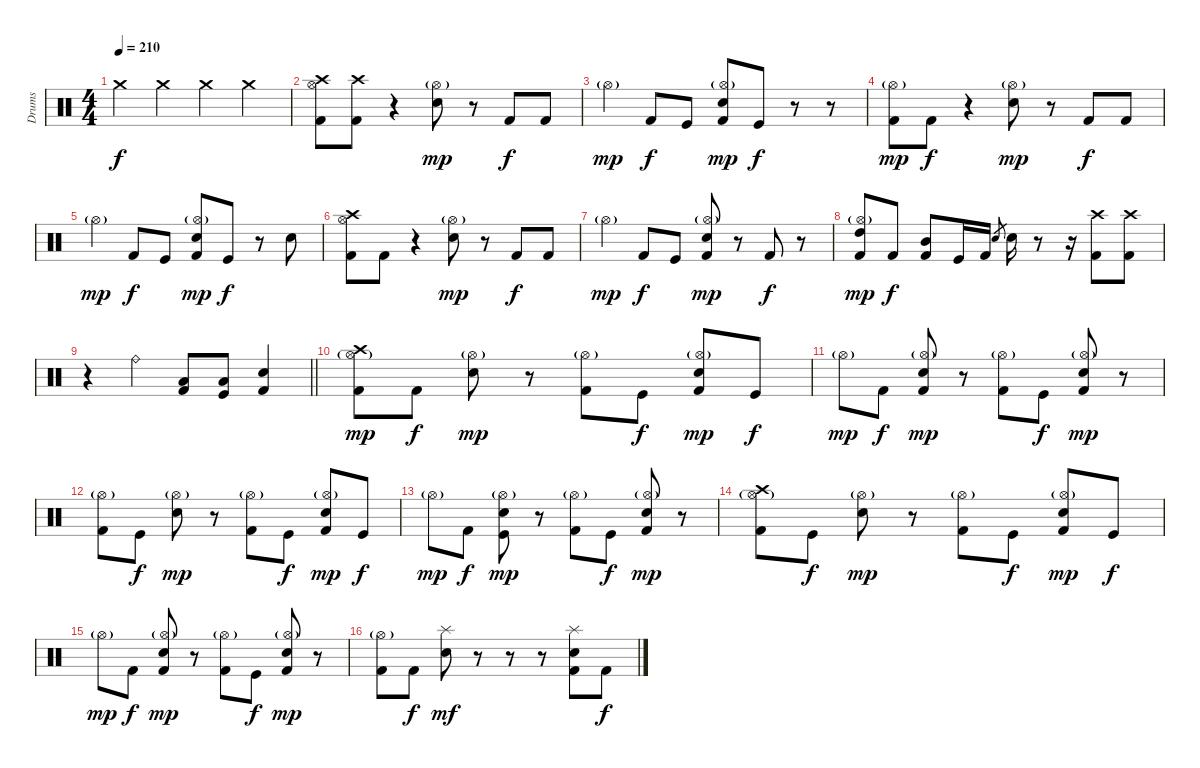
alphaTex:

\track ("Drums" "Drums") {instrument percussion}
\staff {score}
\articulation defaults
\ts (4 4)
\tempo 210
\clef neutral
\ks c "Crash medium (hit)".4{dy f} "Crash medium (hit)".4 "Crash medium (hit)".4 "Crash medium (hit)".4
|
("Kick (hit) 2" "Crash high (hit)" "Hi-Hat (open)").8 ("Kick (hit) 2" "Crash high (hit)").8 r.4 ("Electric Snare (hit)" "Hi-Hat (open)"{g}).8{dy mp} r.8 "Kick (hit) 2".8{dy f} "Kick (hit) 2".8 |
"Hi-Hat (open)"{g}.4{dy mp} "Kick (hit) 2".8{dy f} "Kick (hit)".8 ("Kick (hit) 2" "Electric Snare (hit)" "Hi-Hat (open)"{g}).8{dy mp} "Kick (hit)".8{dy f} r.8 r.8 |
("Kick (hit) 2" "Hi-Hat (open)"{g}).8{dy mp} "Kick (hit) 2".8{dy f} r.4 ("Electric Snare (hit)" "Hi-Hat (open)"{g}).8{dy mp} r.8 "Kick (hit) 2".8{dy f} "Kick (hit) 2".8 |
"Hi-Hat (open)"{g}.4{dy mp} "Kick (hit) 2".8{dy f} "Kick (hit)".8 ("Kick (hit) 2" "Electric Snare (hit)" "Hi-Hat (open)"{g}).8{dy mp} "Kick (hit)".8{dy f} r.8 "Electric Snare (hit)".8 |
("Kick (hit) 2" "Crash high (hit)" "Hi-Hat (open)").8 "Kick (hit) 2".8 r.4 ("Electric Snare (hit)" "Hi-Hat (open)"{g}).8{dy mp} r.8 "Kick (hit) 2".8{dy f} "Kick (hit) 2".8 |
"Hi-Hat (open)"{g}.4{dy mp} "Kick (hit) 2".8{dy f} "Kick (hit)".8 ("Kick (hit) 2" "Electric Snare (hit)" "Hi-Hat (open)"{g}).8{dy mp} r.8 "Kick (hit) 2".8{dy f} r.8 |
("Kick (hit) 2" "High Tom (hit)" "Hi-Hat (open)"{g}).8{dy mp} "Kick (hit) 2".8{dy f} ("Kick (hit) 2" "Mid Tom (hit)").8 "Kick (hit)".16 "Kick (hit) 2".16 "Electric Snare (hit)".8{gr} "Electric Snare (hit)".16 r.8 r.16 ("Kick (hit) 2" "Crash high (hit)").8 ("Kick (hit) 2" "Crash high (hit)").8 |
\barLineRight lightlight
r.4 "Ride (bell)".4 ("Kick (hit) 2" "Low Tom (hit)").8 ("Kick (hit)" "Low Tom (hit)").8 ("Kick (hit) 2" "Electric Snare (hit)").4 |
("Kick (hit) 2" "Crash high (hit)" "Hi-Hat (open)"{g}).8{dy mp} "Kick (hit) 2".8{dy f} ("Electric Snare (hit)" "Hi-Hat (open)"{g}).8{dy mp} r.8 ("Kick (hit) 2" "Hi-Hat (open)"{g}).8 "Kick (hit)".8{dy f} ("Kick (hit) 2" "Electric Snare (hit)" "Hi-Hat (open)"{g}).8{dy mp} "Kick (hit)".8{dy f} |
"Hi-Hat (open)"{g}.8{dy mp} "Kick (hit) 2".8{dy f} ("Kick (hit) 2" "Electric Snare (hit)" "Hi-Hat (open)"{g}).8{dy mp} r.8 ("Kick (hit) 2" "Hi-Hat (open)"{g}).8 "Kick (hit)".8{dy f} ("Kick (hit) 2" "Electric Snare (hit)" "Hi-Hat (open)"{g}).8{dy mp} r.8 |
("Kick (hit) 2" "Hi-Hat (open)"{g}).8 "Kick (hit)".8{dy f} ("Electric Snare (hit)" "Hi-Hat (open)"{g}).8{dy mp} r.8 ("Kick (hit) 2" "Hi-Hat (open)"{g}).8 "Kick (hit)".8{dy f} ("Kick (hit) 2" "Electric Snare (hit)" "Hi-Hat (open)"{g}).8{dy mp} "Kick (hit)".8{dy f} |
"Hi-Hat (open)"{g}.8{dy mp} "Kick (hit) 2".8{dy f} ("Kick (hit)" "Electric Snare (hit)" "Hi-Hat (open)"{g}).8{dy mp} r.8 ("Kick (hit) 2" "Hi-Hat (open)"{g}).8 "Kick (hit)".8{dy f} ("Kick (hit) 2" "Electric Snare (hit)" "Hi-Hat (open)"{g}).8{dy mp} r.8 |
("Kick (hit) 2" "Crash high (hit)" "Hi-Hat (open)"{g}).8 "Kick (hit)".8{dy f} ("Electric Snare (hit)" "Hi-Hat (open)"{g}).8{dy mp} r.8 ("Kick (hit) 2" "Hi-Hat (open)"{g}).8 "Kick (hit)".8{dy f} ("Kick (hit) 2" "Electric Snare (hit)" "Hi-Hat (open)"{g}).8{dy mp} "Kick (hit)".8{dy f} |
"Hi-Hat (open)"{g}.8{dy mp} "Kick (hit) 2".8{dy f} ("Kick (hit) 2" "Electric Snare (hit)" "Hi-Hat (open)"{g}).8{dy mp} r.8 ("Kick (hit) 2" "Hi-Hat (open)"{g}).8 "Kick (hit)".8{dy f} ("Kick (hit) 2" "Electric Snare (hit)" "Hi-Hat (open)"{g}).8{dy mp} r.8 |
("Kick (hit) 2" "Hi-Hat (open)"{g}).8 "Kick (hit) 2".8{dy f} ("Electric Snare (hit)" "Splash (hit)").8{dy mf} r.8 r.8 r.8 ("Kick (hit) 2" "Electric Snare (hit)" "Splash (hit)").8 "Kick (hit) 2".8{dy f}
